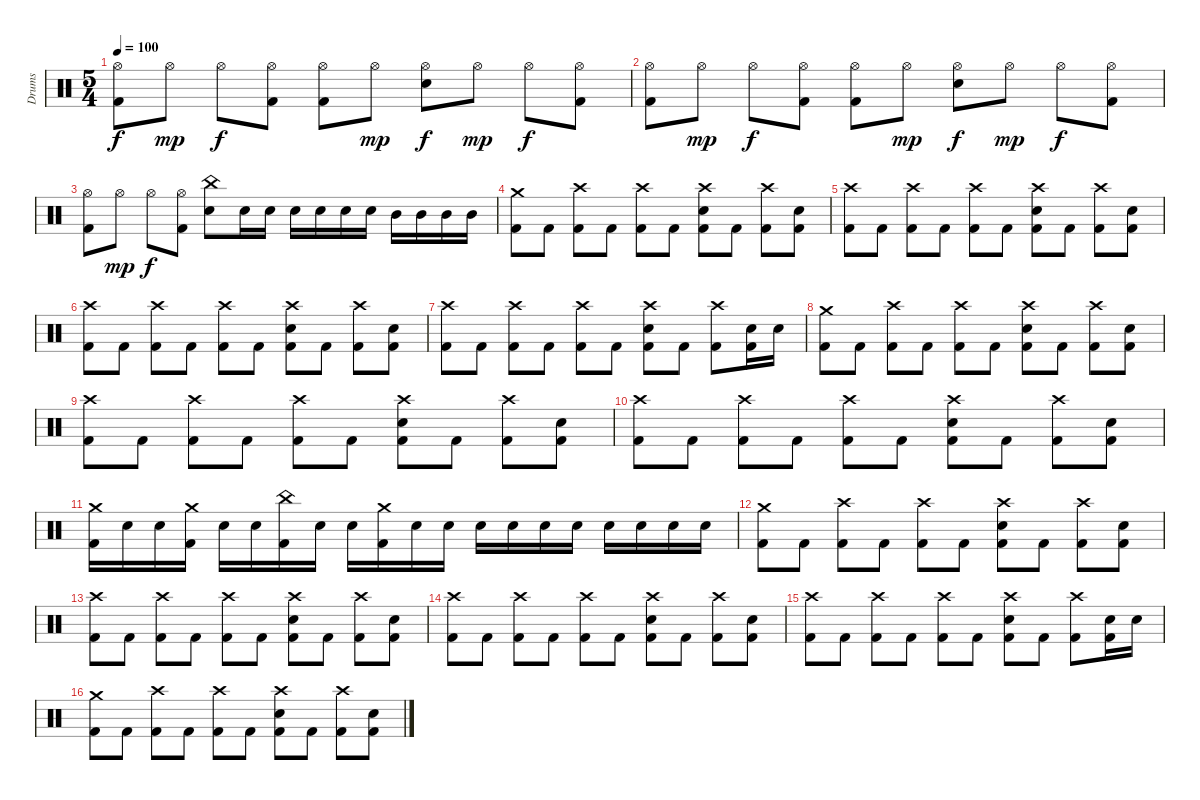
\track ("Drums" "Drums") {instrument percussion}
\staff {score}
\articulation defaults
\ts (5 4)
\tempo 100
\clef neutral
\ks c
("Hi-Hat (open)" "Kick (hit) 2").8{dy f} "Hi-Hat (open)".8{dy mp} "Hi-Hat (open)".8{dy f} ("Hi-Hat (open)" "Kick (hit) 2").8 ("Hi-Hat (open)" "Kick (hit) 2").8 "Hi-Hat (open)".8{dy mp} ("Hi-Hat (open)" "Snare (hit) 2").8{dy f} "Hi-Hat (open)".8{dy mp} "Hi-Hat (open)".8{dy f} ("Hi-Hat (open)" "Kick (hit) 2").8 |
("Hi-Hat (open)" "Kick (hit) 2").8 "Hi-Hat (open)".8{dy mp} "Hi-Hat (open)".8{dy f} ("Hi-Hat (open)" "Kick (hit) 2").8 ("Hi-Hat (open)" "Kick (hit) 2").8 "Hi-Hat (open)".8{dy mp} ("Hi-Hat (open)" "Snare (hit) 2").8{dy f} "Hi-Hat (open)".8{dy mp} "Hi-Hat (open)".8{dy f} ("Hi-Hat (open)" "Kick (hit) 2").8 |
("Hi-Hat (open)" "Kick (hit) 2").8 "Hi-Hat (open)".8{dy mp} "Hi-Hat (open)".8{dy f} ("Hi-Hat (open)" "Kick (hit) 2").8 ("China (hit)" "Snare (hit) 2").8 "Snare (hit) 2".16 "Snare (hit) 2".16 "Snare (hit) 2".16 "Snare (hit) 2".16 "Snare (hit) 2".16 "Snare (hit) 2".16 "Mid Tom (hit)".16 "Mid Tom (hit)".16 "Mid Tom (hit)".16 "Mid Tom (hit)".16 |
("Crash medium (hit)" "Kick (hit) 2").8 "Kick (hit) 2".8 ("Crash high (hit)" "Kick (hit) 2").8 "Kick (hit) 2".8 ("Crash high (hit)" "Kick (hit) 2").8 "Kick (hit) 2".8 ("Crash high (hit)" "Snare (hit) 2" "Kick (hit) 2").8 "Kick (hit) 2".8 ("Crash high (hit)" "Kick (hit) 2").8 ("Snare (hit) 2" "Kick (hit) 2").8 |
("Crash high (hit)" "Kick (hit) 2").8 "Kick (hit) 2".8 ("Crash high (hit)" "Kick (hit) 2").8 "Kick (hit) 2".8 ("Crash high (hit)" "Kick (hit) 2").8 "Kick (hit) 2".8 ("Crash high (hit)" "Snare (hit) 2" "Kick (hit) 2").8 "Kick (hit) 2".8 ("Crash high (hit)" "Kick (hit) 2").8 ("Snare (hit) 2" "Kick (hit) 2").8 |
("Crash high (hit)" "Kick (hit) 2").8 "Kick (hit) 2".8 ("Crash high (hit)" "Kick (hit) 2").8 "Kick (hit) 2".8 ("Crash high (hit)" "Kick (hit) 2").8 "Kick (hit) 2".8 ("Crash high (hit)" "Snare (hit) 2" "Kick (hit) 2").8 "Kick (hit) 2".8 ("Crash high (hit)" "Kick (hit) 2").8 ("Snare (hit) 2" "Kick (hit) 2").8 |
("Crash high (hit)" "Kick (hit) 2").8 "Kick (hit) 2".8 ("Crash high (hit)" "Kick (hit) 2").8 "Kick (hit) 2".8 ("Crash high (hit)" "Kick (hit) 2").8 "Kick (hit) 2".8 ("Crash high (hit)" "Snare (hit) 2" "Kick (hit) 2").8 "Kick (hit) 2".8 ("Crash high (hit)" "Kick (hit) 2").8 ("Snare (hit) 2" "Kick (hit) 2").16 "Snare (hit) 2".16 |
("Crash medium (hit)" "Kick (hit) 2").8 "Kick (hit) 2".8 ("Crash high (hit)" "Kick (hit) 2").8 "Kick (hit) 2".8 ("Crash high (hit)" "Kick (hit) 2").8 "Kick (hit) 2".8 ("Crash high (hit)" "Snare (hit) 2" "Kick (hit) 2").8 "Kick (hit) 2".8 ("Crash high (hit)" "Kick (hit) 2").8 ("Snare (hit) 2" "Kick (hit) 2").8 |
("Crash high (hit)" "Kick (hit) 2").8 "Kick (hit) 2".8 ("Crash high (hit)" "Kick (hit) 2").8 "Kick (hit) 2".8 ("Crash high (hit)" "Kick (hit) 2").8 "Kick (hit) 2".8 ("Crash high (hit)" "Snare (hit) 2" "Kick (hit) 2").8 "Kick (hit) 2".8 ("Crash high (hit)" "Kick (hit) 2").8 ("Snare (hit) 2" "Kick (hit) 2").8 |
("Crash high (hit)" "Kick (hit) 2").8 "Kick (hit) 2".8 ("Crash high (hit)" "Kick (hit) 2").8 "Kick (hit) 2".8 ("Crash high (hit)" "Kick (hit) 2").8 "Kick (hit) 2".8 ("Crash high (hit)" "Snare (hit) 2" "Kick (hit) 2").8 "Kick (hit) 2".8 ("Crash high (hit)" "Kick (hit) 2").8 ("Snare (hit) 2" "Kick (hit) 2").8 |
("Crash medium (hit)" "Kick (hit) 2").16 "Snare (hit) 2".16 "Snare (hit) 2".16 ("Crash medium (hit)" "Kick (hit) 2").16 "Snare (hit) 2".16 "Snare (hit) 2".16 ("China (hit)" "Kick (hit) 2").16 "Snare (hit) 2".16 "Snare (hit) 2".16 ("Crash medium (hit)" "Kick (hit) 2").16 "Snare (hit) 2".16 "Snare (hit) 2".16 "Snare (hit) 2".16 "Snare (hit) 2".16 "Snare (hit) 2".16 "Snare (hit) 2".16 "Snare (hit) 2".16 "Snare (hit) 2".16 "Snare (hit) 2".16 "Snare (hit) 2".16 |
("Crash medium (hit)" "Kick (hit) 2").8 "Kick (hit) 2".8 ("Crash high (hit)" "Kick (hit) 2").8 "Kick (hit) 2".8 ("Crash high (hit)" "Kick (hit) 2").8 "Kick (hit) 2".8 ("Crash high (hit)" "Snare (hit) 2" "Kick (hit) 2").8 "Kick (hit) 2".8 ("Crash high (hit)" "Kick (hit) 2").8 ("Snare (hit) 2" "Kick (hit) 2").8 |
("Crash high (hit)" "Kick (hit) 2").8 "Kick (hit) 2".8 ("Crash high (hit)" "Kick (hit) 2").8 "Kick (hit) 2".8 ("Crash high (hit)" "Kick (hit) 2").8 "Kick (hit) 2".8 ("Crash high (hit)" "Snare (hit) 2" "Kick (hit) 2").8 "Kick (hit) 2".8 ("Crash high (hit)" "Kick (hit) 2").8 ("Snare (hit) 2" "Kick (hit) 2").8 |
("Crash high (hit)" "Kick (hit) 2").8 "Kick (hit) 2".8 ("Crash high (hit)" "Kick (hit) 2").8 "Kick (hit) 2".8 ("Crash high (hit)" "Kick (hit) 2").8 "Kick (hit) 2".8 ("Crash high (hit)" "Snare (hit) 2" "Kick (hit) 2").8 "Kick (hit) 2".8 ("Crash high (hit)" "Kick (hit) 2").8 ("Snare (hit) 2" "Kick (hit) 2").8 |
("Crash high (hit)" "Kick (hit) 2").8 "Kick (hit) 2".8 ("Crash high (hit)" "Kick (hit) 2").8 "Kick (hit) 2".8 ("Crash high (hit)" "Kick (hit) 2").8 "Kick (hit) 2".8 ("Crash high (hit)" "Snare (hit) 2" "Kick (hit) 2").8 "Kick (hit) 2".8 ("Crash high (hit)" "Kick (hit) 2").8 ("Snare (hit) 2" "Kick (hit) 2").16 "Snare (hit) 2".16 |
("Crash medium (hit)" "Kick (hit) 2").8 "Kick (hit) 2".8 ("Crash high (hit)" "Kick (hit) 2").8 "Kick (hit) 2".8 ("Crash high (hit)" "Kick (hit) 2").8 "Kick (hit) 2".8 ("Crash high (hit)" "Snare (hit) 2" "Kick (hit) 2").8 "Kick (hit) 2".8 ("Crash high (hit)" "Kick (hit) 2").8 ("Snare (hit) 2" "Kick (hit) 2").8
